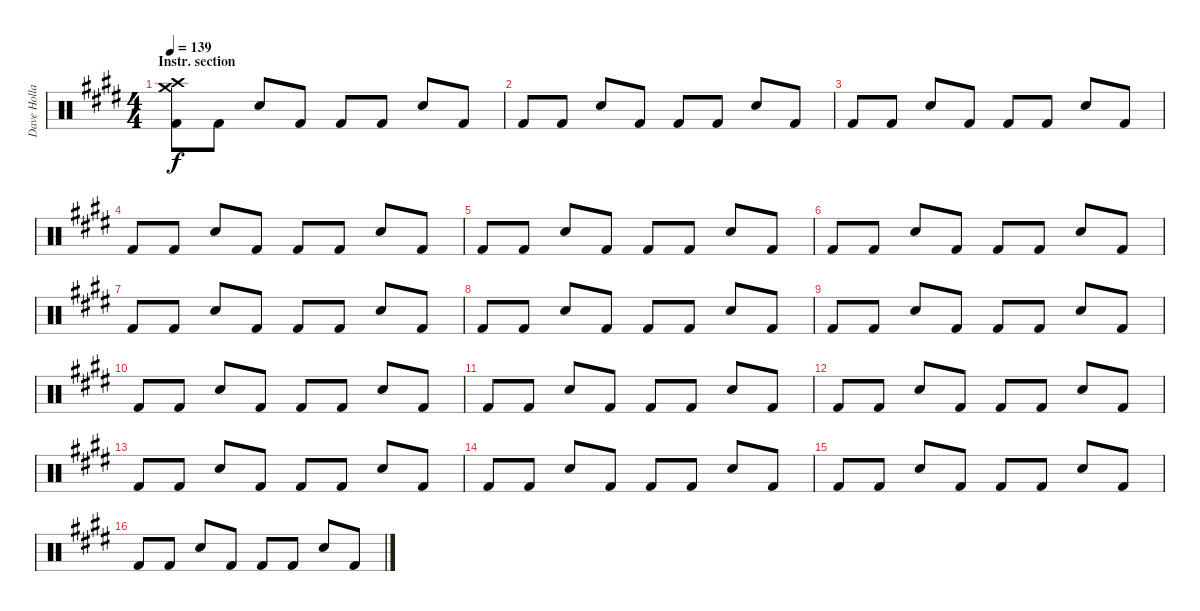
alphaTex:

\track ("Dave Holland" "Dave Holla") {instrument percussion}
\staff {score}
\articulation defaults
\ts (4 4)
\section ("" "Instr. section")
\tempo 139
\clef neutral
\ks c#minor
("Crash medium (hit)" "Crash high (hit)" "Kick (hit) 2").8{dy f} "Kick (hit) 2".8 "Snare (hit) 2".8 "Kick (hit) 2".8 "Kick (hit) 2".8 "Kick (hit) 2".8 "Snare (hit) 2".8 "Kick (hit) 2".8 |
"Kick (hit) 2".8 "Kick (hit) 2".8 "Snare (hit) 2".8 "Kick (hit) 2".8 "Kick (hit) 2".8 "Kick (hit) 2".8 "Snare (hit) 2".8 "Kick (hit) 2".8 |
"Kick (hit) 2".8 "Kick (hit) 2".8 "Snare (hit) 2".8 "Kick (hit) 2".8 "Kick (hit) 2".8 "Kick (hit) 2".8 "Snare (hit) 2".8 "Kick (hit) 2".8 |
"Kick (hit) 2".8 "Kick (hit) 2".8 "Snare (hit) 2".8 "Kick (hit) 2".8 "Kick (hit) 2".8 "Kick (hit) 2".8 "Snare (hit) 2".8 "Kick (hit) 2".8 |
"Kick (hit) 2".8 "Kick (hit) 2".8 "Snare (hit) 2".8 "Kick (hit) 2".8 "Kick (hit) 2".8 "Kick (hit) 2".8 "Snare (hit) 2".8 "Kick (hit) 2".8 |
"Kick (hit) 2".8 "Kick (hit) 2".8 "Snare (hit) 2".8 "Kick (hit) 2".8 "Kick (hit) 2".8 "Kick (hit) 2".8 "Snare (hit) 2".8 "Kick (hit) 2".8 |
"Kick (hit) 2".8 "Kick (hit) 2".8 "Snare (hit) 2".8 "Kick (hit) 2".8 "Kick (hit) 2".8 "Kick (hit) 2".8 "Snare (hit) 2".8 "Kick (hit) 2".8 |
"Kick (hit) 2".8 "Kick (hit) 2".8 "Snare (hit) 2".8 "Kick (hit) 2".8 "Kick (hit) 2".8 "Kick (hit) 2".8 "Snare (hit) 2".8 "Kick (hit) 2".8 |
"Kick (hit) 2".8 "Kick (hit) 2".8 "Snare (hit) 2".8 "Kick (hit) 2".8 "Kick (hit) 2".8 "Kick (hit) 2".8 "Snare (hit) 2".8 "Kick (hit) 2".8 |
"Kick (hit) 2".8 "Kick (hit) 2".8 "Snare (hit) 2".8 "Kick (hit) 2".8 "Kick (hit) 2".8 "Kick (hit) 2".8 "Snare (hit) 2".8 "Kick (hit) 2".8 |
"Kick (hit) 2".8 "Kick (hit) 2".8 "Snare (hit) 2".8 "Kick (hit) 2".8 "Kick (hit) 2".8 "Kick (hit) 2".8 "Snare (hit) 2".8 "Kick (hit) 2".8 |
"Kick (hit) 2".8 "Kick (hit) 2".8 "Snare (hit) 2".8 "Kick (hit) 2".8 "Kick (hit) 2".8 "Kick (hit) 2".8 "Snare (hit) 2".8 "Kick (hit) 2".8 |
"Kick (hit) 2".8 "Kick (hit) 2".8 "Snare (hit) 2".8 "Kick (hit) 2".8 "Kick (hit) 2".8 "Kick (hit) 2".8 "Snare (hit) 2".8 "Kick (hit) 2".8 |
"Kick (hit) 2".8 "Kick (hit) 2".8 "Snare (hit) 2".8 "Kick (hit) 2".8 "Kick (hit) 2".8 "Kick (hit) 2".8 "Snare (hit) 2".8 "Kick (hit) 2".8 |
"Kick (hit) 2".8 "Kick (hit) 2".8 "Snare (hit) 2".8 "Kick (hit) 2".8 "Kick (hit) 2".8 "Kick (hit) 2".8 "Snare (hit) 2".8 "Kick (hit) 2".8 |
"Kick (hit) 2".8 "Kick (hit) 2".8 "Snare (hit) 2".8 "Kick (hit) 2".8 "Kick (hit) 2".8 "Kick (hit) 2".8 "Snare (hit) 2".8 "Kick (hit) 2".8
